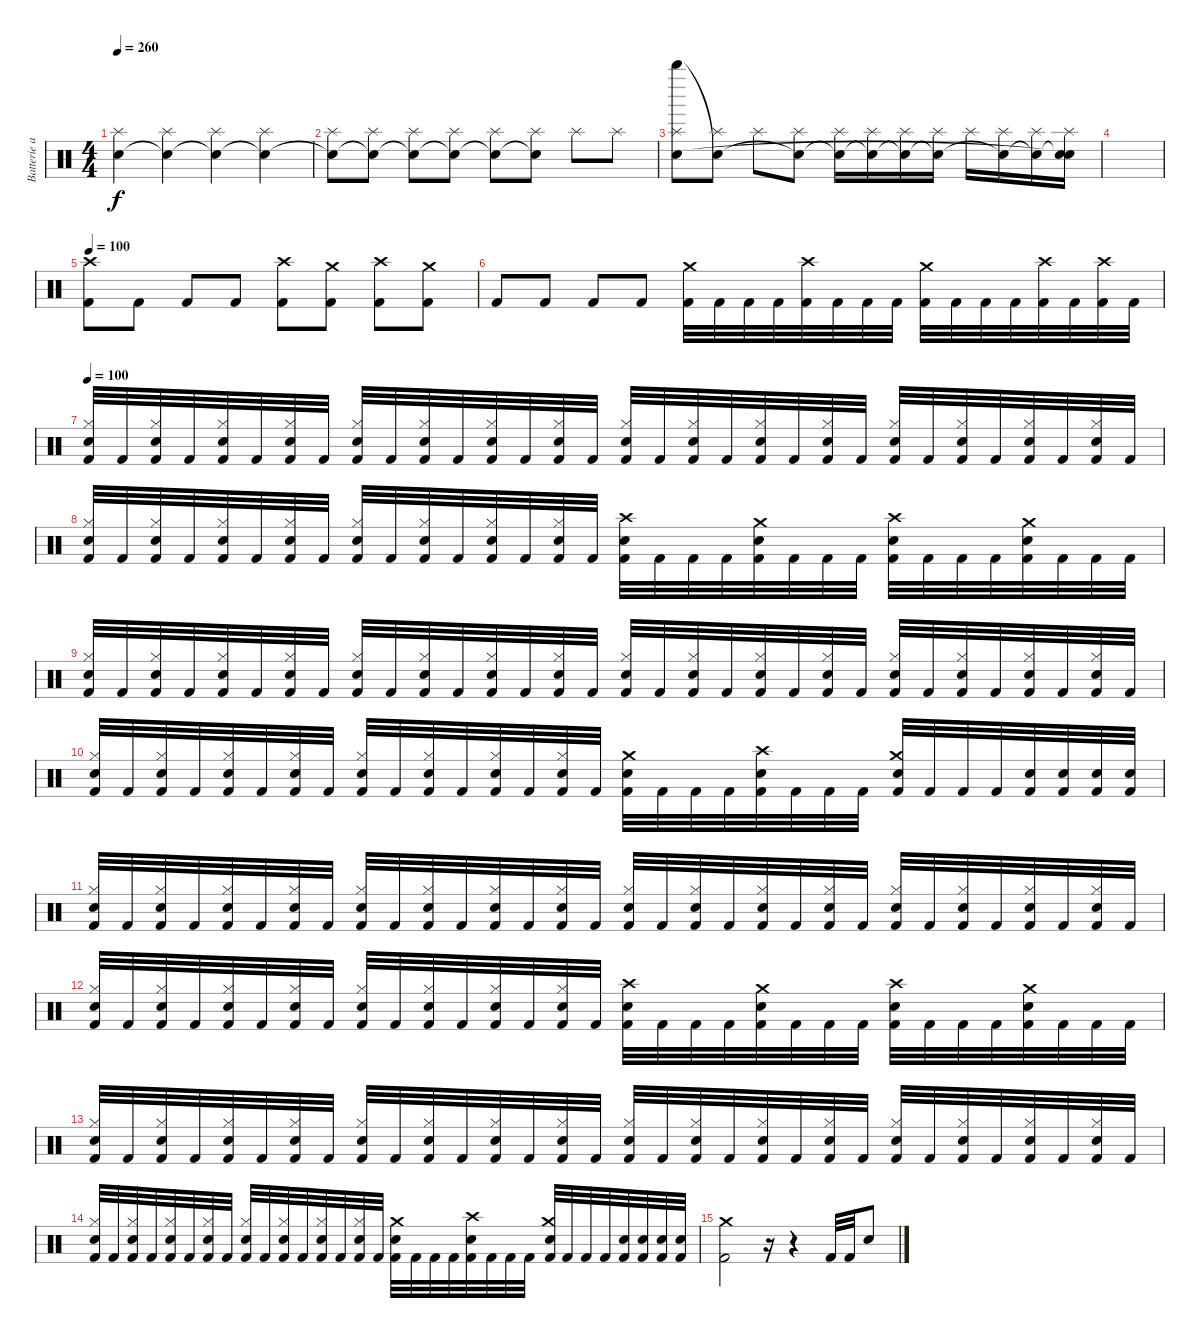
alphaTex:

\track ("Batterie and Effects" "Batterie a") {instrument percussion}
\staff {score}
\articulation defaults
\ts (4 4)
\tempo 260
\clef neutral
\ks c
("Splash (hit)" "Snare (hit)"{t}).4{dy f} ("Splash (hit)" "Snare (hit)"{t}).4 ("Splash (hit)" "Snare (hit)"{t}).4 ("Splash (hit)" "Snare (hit)"{t}).4 |
("Splash (hit)" "Snare (hit)"{t}).8 ("Splash (hit)" "Snare (hit)"{t}).8 ("Splash (hit)" "Snare (hit)"{t}).8 ("Splash (hit)" "Snare (hit)"{t}).8 ("Splash (hit)" "Snare (hit)"{t}).8 ("Splash (hit)" "Snare (hit)"{t}).8 "Splash (hit)".8 "Splash (hit)".8 |
("Splash (hit)" "Whistle high (hit)" "Snare (hit)").8 ("Splash (hit)" "Snare (hit)"{t}).8 "Splash (hit)".8 ("Splash (hit)" "Snare (hit)"{t}).8 ("Splash (hit)" "Snare (hit)"{t}).16 ("Splash (hit)" "Snare (hit)"{t}).16 ("Splash (hit)" "Snare (hit)"{t}).16 ("Splash (hit)" "Snare (hit)"{t}).16 "Splash (hit)".16 ("Splash (hit)" "Snare (hit)"{t}).16 ("Splash (hit)" "Snare (hit)"{t}).16 ("Splash (hit)" "Snare (hit)"{t} "Snare (hit)"{t}).16 |
|
\tempo 100
("Crash high (hit)" "Kick (hit) 2").8{volume 16} "Kick (hit) 2".8 "Kick (hit) 2".8 "Kick (hit) 2".8 ("Crash high (hit)" "Kick (hit) 2").8 ("Crash medium (hit)" "Kick (hit) 2").8 ("Crash high (hit)" "Kick (hit) 2").8 ("Crash medium (hit)" "Kick (hit) 2").8 |
"Kick (hit) 2".8 "Kick (hit) 2".8 "Kick (hit) 2".8 "Kick (hit) 2".8 ("Crash medium (hit)" "Kick (hit) 2").32 "Kick (hit) 2".32 "Kick (hit) 2".32 "Kick (hit) 2".32 ("Crash high (hit)" "Kick (hit) 2").32 "Kick (hit) 2".32 "Kick (hit) 2".32 "Kick (hit) 2".32 ("Crash medium (hit)" "Kick (hit) 2").32 "Kick (hit) 2".32 "Kick (hit) 2".32 "Kick (hit) 2".32 ("Crash high (hit)" "Kick (hit) 2").32 "Kick (hit) 2".32 ("Crash high (hit)" "Kick (hit) 2").32 "Kick (hit) 2".32 |
\tempo 100
("Hi-Hat (closed)" "Electric Snare (hit)" "Kick (hit) 2").32 "Kick (hit) 2".32 ("Hi-Hat (closed)" "Electric Snare (hit)" "Kick (hit) 2").32 "Kick (hit) 2".32 ("Hi-Hat (closed)" "Electric Snare (hit)" "Kick (hit) 2").32 "Kick (hit) 2".32 ("Hi-Hat (closed)" "Electric Snare (hit)" "Kick (hit) 2").32 "Kick (hit) 2".32 ("Hi-Hat (closed)" "Electric Snare (hit)" "Kick (hit) 2").32 "Kick (hit) 2".32 ("Hi-Hat (closed)" "Electric Snare (hit)" "Kick (hit) 2").32 "Kick (hit) 2".32 ("Hi-Hat (closed)" "Electric Snare (hit)" "Kick (hit) 2").32 "Kick (hit) 2".32 ("Hi-Hat (closed)" "Electric Snare (hit)" "Kick (hit) 2").32 "Kick (hit) 2".32 ("Hi-Hat (closed)" "Electric Snare (hit)" "Kick (hit) 2").32 "Kick (hit) 2".32 ("Hi-Hat (closed)" "Electric Snare (hit)" "Kick (hit) 2").32 "Kick (hit) 2".32 ("Hi-Hat (closed)" "Electric Snare (hit)" "Kick (hit) 2").32 "Kick (hit) 2".32 ("Hi-Hat (closed)" "Electric Snare (hit)" "Kick (hit) 2").32 "Kick (hit) 2".32 ("Hi-Hat (closed)" "Electric Snare (hit)" "Kick (hit) 2").32 "Kick (hit) 2".32 ("Hi-Hat (closed)" "Electric Snare (hit)" "Kick (hit) 2").32 "Kick (hit) 2".32 ("Hi-Hat (closed)" "Electric Snare (hit)" "Kick (hit) 2").32 "Kick (hit) 2".32 ("Hi-Hat (closed)" "Electric Snare (hit)" "Kick (hit) 2").32 "Kick (hit) 2".32 |
("Hi-Hat (closed)" "Electric Snare (hit)" "Kick (hit) 2").32 "Kick (hit) 2".32 ("Hi-Hat (closed)" "Electric Snare (hit)" "Kick (hit) 2").32 "Kick (hit) 2".32 ("Hi-Hat (closed)" "Electric Snare (hit)" "Kick (hit) 2").32 "Kick (hit) 2".32 ("Hi-Hat (closed)" "Electric Snare (hit)" "Kick (hit) 2").32 "Kick (hit) 2".32 ("Hi-Hat (closed)" "Electric Snare (hit)" "Kick (hit) 2").32 "Kick (hit) 2".32 ("Hi-Hat (closed)" "Electric Snare (hit)" "Kick (hit) 2").32 "Kick (hit) 2".32 ("Hi-Hat (closed)" "Electric Snare (hit)" "Kick (hit) 2").32 "Kick (hit) 2".32 ("Hi-Hat (closed)" "Electric Snare (hit)" "Kick (hit) 2").32 "Kick (hit) 2".32 ("Crash high (hit)" "Electric Snare (hit)" "Kick (hit) 2").32 "Kick (hit) 2".32 "Kick (hit) 2".32 "Kick (hit) 2".32 ("Crash medium (hit)" "Electric Snare (hit)" "Kick (hit) 2").32 "Kick (hit) 2".32 "Kick (hit) 2".32 "Kick (hit) 2".32 ("Crash high (hit)" "Electric Snare (hit)" "Kick (hit) 2").32 "Kick (hit) 2".32 "Kick (hit) 2".32 "Kick (hit) 2".32 ("Crash medium (hit)" "Electric Snare (hit)" "Kick (hit) 2").32 "Kick (hit) 2".32 "Kick (hit) 2".32 "Kick (hit) 2".32 |
("Hi-Hat (closed)" "Electric Snare (hit)" "Kick (hit) 2").32 "Kick (hit) 2".32 ("Hi-Hat (closed)" "Electric Snare (hit)" "Kick (hit) 2").32 "Kick (hit) 2".32 ("Hi-Hat (closed)" "Electric Snare (hit)" "Kick (hit) 2").32 "Kick (hit) 2".32 ("Hi-Hat (closed)" "Electric Snare (hit)" "Kick (hit) 2").32 "Kick (hit) 2".32 ("Hi-Hat (closed)" "Electric Snare (hit)" "Kick (hit) 2").32 "Kick (hit) 2".32 ("Hi-Hat (closed)" "Electric Snare (hit)" "Kick (hit) 2").32 "Kick (hit) 2".32 ("Hi-Hat (closed)" "Electric Snare (hit)" "Kick (hit) 2").32 "Kick (hit) 2".32 ("Hi-Hat (closed)" "Electric Snare (hit)" "Kick (hit) 2").32 "Kick (hit) 2".32 ("Hi-Hat (closed)" "Electric Snare (hit)" "Kick (hit) 2").32 "Kick (hit) 2".32 ("Hi-Hat (closed)" "Electric Snare (hit)" "Kick (hit) 2").32 "Kick (hit) 2".32 ("Hi-Hat (closed)" "Electric Snare (hit)" "Kick (hit) 2").32 "Kick (hit) 2".32 ("Hi-Hat (closed)" "Electric Snare (hit)" "Kick (hit) 2").32 "Kick (hit) 2".32 ("Hi-Hat (closed)" "Electric Snare (hit)" "Kick (hit) 2").32 "Kick (hit) 2".32 ("Hi-Hat (closed)" "Electric Snare (hit)" "Kick (hit) 2").32 "Kick (hit) 2".32 ("Hi-Hat (closed)" "Electric Snare (hit)" "Kick (hit) 2").32 "Kick (hit) 2".32 ("Hi-Hat (closed)" "Electric Snare (hit)" "Kick (hit) 2").32 "Kick (hit) 2".32 |
("Hi-Hat (closed)" "Electric Snare (hit)" "Kick (hit) 2").32 "Kick (hit) 2".32 ("Hi-Hat (closed)" "Electric Snare (hit)" "Kick (hit) 2").32 "Kick (hit) 2".32 ("Hi-Hat (closed)" "Electric Snare (hit)" "Kick (hit) 2").32 "Kick (hit) 2".32 ("Hi-Hat (closed)" "Electric Snare (hit)" "Kick (hit) 2").32 "Kick (hit) 2".32 ("Hi-Hat (closed)" "Electric Snare (hit)" "Kick (hit) 2").32 "Kick (hit) 2".32 ("Hi-Hat (closed)" "Electric Snare (hit)" "Kick (hit) 2").32 "Kick (hit) 2".32 ("Hi-Hat (closed)" "Electric Snare (hit)" "Kick (hit) 2").32 "Kick (hit) 2".32 ("Hi-Hat (closed)" "Electric Snare (hit)" "Kick (hit) 2").32 "Kick (hit) 2".32 ("Crash medium (hit)" "Electric Snare (hit)" "Kick (hit) 2").32 "Kick (hit) 2".32 "Kick (hit) 2".32 "Kick (hit) 2".32 ("Crash high (hit)" "Electric Snare (hit)" "Kick (hit) 2").32 "Kick (hit) 2".32 "Kick (hit) 2".32 "Kick (hit) 2".32 ("Crash medium (hit)" "Electric Snare (hit)" "Kick (hit) 2").32 "Kick (hit) 2".32 "Kick (hit) 2".32 "Kick (hit) 2".32 ("Electric Snare (hit)" "Kick (hit) 2").32 ("Electric Snare (hit)" "Kick (hit) 2").32 ("Electric Snare (hit)" "Kick (hit) 2").32 ("Electric Snare (hit)" "Kick (hit) 2").32 |
("Hi-Hat (closed)" "Electric Snare (hit)" "Kick (hit) 2").32 "Kick (hit) 2".32 ("Hi-Hat (closed)" "Electric Snare (hit)" "Kick (hit) 2").32 "Kick (hit) 2".32 ("Hi-Hat (closed)" "Electric Snare (hit)" "Kick (hit) 2").32 "Kick (hit) 2".32 ("Hi-Hat (closed)" "Electric Snare (hit)" "Kick (hit) 2").32 "Kick (hit) 2".32 ("Hi-Hat (closed)" "Electric Snare (hit)" "Kick (hit) 2").32 "Kick (hit) 2".32 ("Hi-Hat (closed)" "Electric Snare (hit)" "Kick (hit) 2").32 "Kick (hit) 2".32 ("Hi-Hat (closed)" "Electric Snare (hit)" "Kick (hit) 2").32 "Kick (hit) 2".32 ("Hi-Hat (closed)" "Electric Snare (hit)" "Kick (hit) 2").32 "Kick (hit) 2".32 ("Hi-Hat (closed)" "Electric Snare (hit)" "Kick (hit) 2").32 "Kick (hit) 2".32 ("Hi-Hat (closed)" "Electric Snare (hit)" "Kick (hit) 2").32 "Kick (hit) 2".32 ("Hi-Hat (closed)" "Electric Snare (hit)" "Kick (hit) 2").32 "Kick (hit) 2".32 ("Hi-Hat (closed)" "Electric Snare (hit)" "Kick (hit) 2").32 "Kick (hit) 2".32 ("Hi-Hat (closed)" "Electric Snare (hit)" "Kick (hit) 2").32 "Kick (hit) 2".32 ("Hi-Hat (closed)" "Electric Snare (hit)" "Kick (hit) 2").32 "Kick (hit) 2".32 ("Hi-Hat (closed)" "Electric Snare (hit)" "Kick (hit) 2").32 "Kick (hit) 2".32 ("Hi-Hat (closed)" "Electric Snare (hit)" "Kick (hit) 2").32 "Kick (hit) 2".32 |
("Hi-Hat (closed)" "Electric Snare (hit)" "Kick (hit) 2").32 "Kick (hit) 2".32 ("Hi-Hat (closed)" "Electric Snare (hit)" "Kick (hit) 2").32 "Kick (hit) 2".32 ("Hi-Hat (closed)" "Electric Snare (hit)" "Kick (hit) 2").32 "Kick (hit) 2".32 ("Hi-Hat (closed)" "Electric Snare (hit)" "Kick (hit) 2").32 "Kick (hit) 2".32 ("Hi-Hat (closed)" "Electric Snare (hit)" "Kick (hit) 2").32 "Kick (hit) 2".32 ("Hi-Hat (closed)" "Electric Snare (hit)" "Kick (hit) 2").32 "Kick (hit) 2".32 ("Hi-Hat (closed)" "Electric Snare (hit)" "Kick (hit) 2").32 "Kick (hit) 2".32 ("Hi-Hat (closed)" "Electric Snare (hit)" "Kick (hit) 2").32 "Kick (hit) 2".32 ("Crash high (hit)" "Electric Snare (hit)" "Kick (hit) 2").32 "Kick (hit) 2".32 "Kick (hit) 2".32 "Kick (hit) 2".32 ("Crash medium (hit)" "Electric Snare (hit)" "Kick (hit) 2").32 "Kick (hit) 2".32 "Kick (hit) 2".32 "Kick (hit) 2".32 ("Crash high (hit)" "Electric Snare (hit)" "Kick (hit) 2").32 "Kick (hit) 2".32 "Kick (hit) 2".32 "Kick (hit) 2".32 ("Crash medium (hit)" "Electric Snare (hit)" "Kick (hit) 2").32 "Kick (hit) 2".32 "Kick (hit) 2".32 "Kick (hit) 2".32 |
("Hi-Hat (closed)" "Electric Snare (hit)" "Kick (hit) 2").32 "Kick (hit) 2".32 ("Hi-Hat (closed)" "Electric Snare (hit)" "Kick (hit) 2").32 "Kick (hit) 2".32 ("Hi-Hat (closed)" "Electric Snare (hit)" "Kick (hit) 2").32 "Kick (hit) 2".32 ("Hi-Hat (closed)" "Electric Snare (hit)" "Kick (hit) 2").32 "Kick (hit) 2".32 ("Hi-Hat (closed)" "Electric Snare (hit)" "Kick (hit) 2").32 "Kick (hit) 2".32 ("Hi-Hat (closed)" "Electric Snare (hit)" "Kick (hit) 2").32 "Kick (hit) 2".32 ("Hi-Hat (closed)" "Electric Snare (hit)" "Kick (hit) 2").32 "Kick (hit) 2".32 ("Hi-Hat (closed)" "Electric Snare (hit)" "Kick (hit) 2").32 "Kick (hit) 2".32 ("Hi-Hat (closed)" "Electric Snare (hit)" "Kick (hit) 2").32 "Kick (hit) 2".32 ("Hi-Hat (closed)" "Electric Snare (hit)" "Kick (hit) 2").32 "Kick (hit) 2".32 ("Hi-Hat (closed)" "Electric Snare (hit)" "Kick (hit) 2").32 "Kick (hit) 2".32 ("Hi-Hat (closed)" "Electric Snare (hit)" "Kick (hit) 2").32 "Kick (hit) 2".32 ("Hi-Hat (closed)" "Electric Snare (hit)" "Kick (hit) 2").32 "Kick (hit) 2".32 ("Hi-Hat (closed)" "Electric Snare (hit)" "Kick (hit) 2").32 "Kick (hit) 2".32 ("Hi-Hat (closed)" "Electric Snare (hit)" "Kick (hit) 2").32 "Kick (hit) 2".32 ("Hi-Hat (closed)" "Electric Snare (hit)" "Kick (hit) 2").32 "Kick (hit) 2".32 |
("Hi-Hat (closed)" "Electric Snare (hit)" "Kick (hit) 2").32 "Kick (hit) 2".32 ("Hi-Hat (closed)" "Electric Snare (hit)" "Kick (hit) 2").32 "Kick (hit) 2".32 ("Hi-Hat (closed)" "Electric Snare (hit)" "Kick (hit) 2").32 "Kick (hit) 2".32 ("Hi-Hat (closed)" "Electric Snare (hit)" "Kick (hit) 2").32 "Kick (hit) 2".32 ("Hi-Hat (closed)" "Electric Snare (hit)" "Kick (hit) 2").32 "Kick (hit) 2".32 ("Hi-Hat (closed)" "Electric Snare (hit)" "Kick (hit) 2").32 "Kick (hit) 2".32 ("Hi-Hat (closed)" "Electric Snare (hit)" "Kick (hit) 2").32 "Kick (hit) 2".32 ("Hi-Hat (closed)" "Electric Snare (hit)" "Kick (hit) 2").32 "Kick (hit) 2".32 ("Crash medium (hit)" "Electric Snare (hit)" "Kick (hit) 2").32 "Kick (hit) 2".32 "Kick (hit) 2".32 "Kick (hit) 2".32 ("Crash high (hit)" "Electric Snare (hit)" "Kick (hit) 2").32 "Kick (hit) 2".32 "Kick (hit) 2".32 "Kick (hit) 2".32 ("Crash medium (hit)" "Electric Snare (hit)" "Kick (hit) 2").32 "Kick (hit) 2".32 "Kick (hit) 2".32 "Kick (hit) 2".32 ("Electric Snare (hit)" "Kick (hit) 2").32 ("Electric Snare (hit)" "Kick (hit) 2").32 ("Electric Snare (hit)" "Kick (hit) 2").32 ("Electric Snare (hit)" "Kick (hit) 2").32 |
("Crash medium (hit)" "Kick (hit) 2").2 r.16 r.4 "Kick (hit) 2".32 "Kick (hit) 2".32 "Electric Snare (hit)".8
